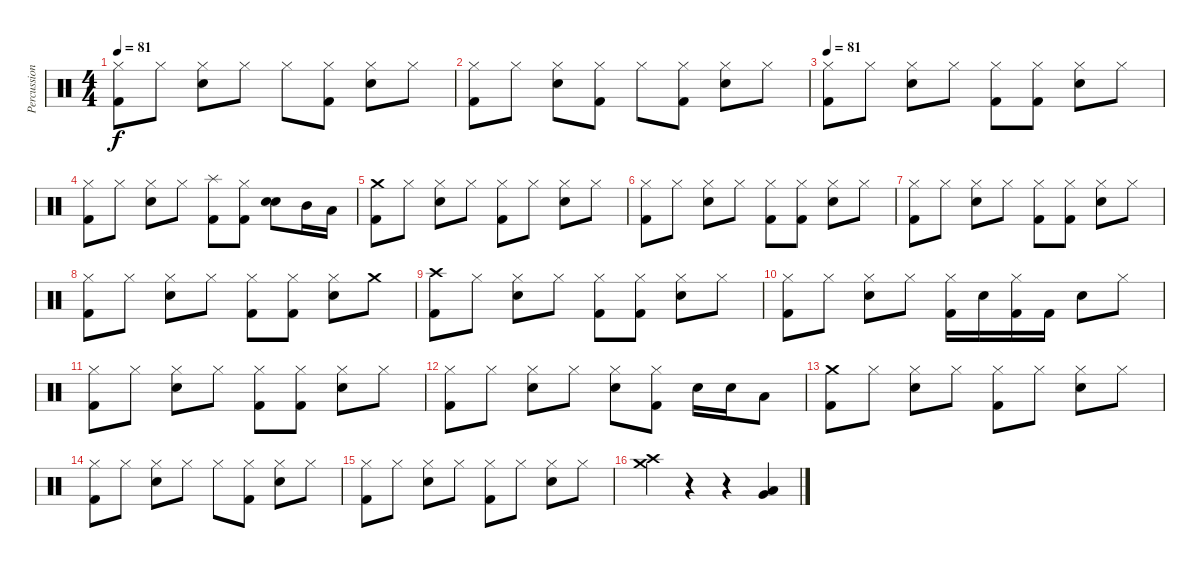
\track ("Percussion" "Percussion") {instrument percussion}
\staff {score}
\articulation defaults
\ts (4 4)
\tempo 81
\clef neutral
\ks c
("Hi-Hat (closed)" "Kick (hit) 2").8{dy f} "Hi-Hat (closed)".8 ("Hi-Hat (closed)" "Snare (hit) 2").8 "Hi-Hat (closed)".8 "Hi-Hat (closed)".8 ("Hi-Hat (closed)" "Kick (hit) 2").8 ("Hi-Hat (closed)" "Snare (hit) 2").8 "Hi-Hat (closed)".8 |
("Hi-Hat (closed)" "Kick (hit) 2").8 "Hi-Hat (closed)".8 ("Hi-Hat (closed)" "Snare (hit) 2").8 ("Hi-Hat (closed)" "Kick (hit) 2").8 "Hi-Hat (closed)".8 ("Hi-Hat (closed)" "Kick (hit) 2").8 ("Hi-Hat (closed)" "Snare (hit) 2").8 "Hi-Hat (closed)".8 |
\tempo 81
("Hi-Hat (closed)" "Kick (hit) 2").8 "Hi-Hat (closed)".8 ("Hi-Hat (closed)" "Snare (hit) 2").8 "Hi-Hat (closed)".8 ("Hi-Hat (closed)" "Kick (hit) 2").8 ("Hi-Hat (closed)" "Kick (hit) 2").8 ("Hi-Hat (closed)" "Snare (hit) 2").8 "Hi-Hat (closed)".8 |
("Hi-Hat (closed)" "Kick (hit) 2").8 "Hi-Hat (closed)".8 ("Hi-Hat (closed)" "Snare (hit) 2").8 "Hi-Hat (closed)".8 ("Splash (hit)" "Kick (hit) 2").8 ("Hi-Hat (closed)" "Kick (hit) 2").8 ("Snare (hit) 2" "Snare (hit) 2").8 "Mid Tom (hit)".16 "Low Tom (hit)".16 |
("Crash medium (hit)" "Kick (hit) 2").8 "Hi-Hat (closed)".8 ("Hi-Hat (closed)" "Snare (hit) 2").8 "Hi-Hat (closed)".8 ("Hi-Hat (closed)" "Kick (hit) 2").8 "Hi-Hat (closed)".8 ("Hi-Hat (closed)" "Snare (hit) 2").8 "Hi-Hat (closed)".8 |
("Hi-Hat (closed)" "Kick (hit) 2").8 "Hi-Hat (closed)".8 ("Hi-Hat (closed)" "Snare (hit) 2").8 "Hi-Hat (closed)".8 ("Hi-Hat (closed)" "Kick (hit) 2").8 ("Hi-Hat (closed)" "Kick (hit) 2").8 ("Hi-Hat (closed)" "Snare (hit) 2").8 "Hi-Hat (closed)".8 |
("Hi-Hat (closed)" "Kick (hit) 2").8 "Hi-Hat (closed)".8 ("Hi-Hat (closed)" "Snare (hit) 2").8 "Hi-Hat (closed)".8 ("Hi-Hat (closed)" "Kick (hit) 2").8 ("Hi-Hat (closed)" "Kick (hit) 2").8 ("Hi-Hat (closed)" "Snare (hit) 2").8 "Hi-Hat (closed)".8 |
("Hi-Hat (closed)" "Kick (hit) 2").8 "Hi-Hat (closed)".8 ("Hi-Hat (closed)" "Snare (hit) 2").8 "Hi-Hat (closed)".8 ("Hi-Hat (closed)" "Kick (hit) 2").8 ("Hi-Hat (closed)" "Kick (hit) 2").8 ("Hi-Hat (closed)" "Snare (hit) 2").8 "Crash medium (hit)".8 |
("Crash high (hit)" "Kick (hit) 2").8 "Hi-Hat (closed)".8 ("Hi-Hat (closed)" "Snare (hit) 2").8 "Hi-Hat (closed)".8 ("Hi-Hat (closed)" "Kick (hit) 2").8 ("Hi-Hat (closed)" "Kick (hit) 2").8 ("Hi-Hat (closed)" "Snare (hit) 2").8 "Hi-Hat (closed)".8 |
("Hi-Hat (closed)" "Kick (hit) 2").8 "Hi-Hat (closed)".8 ("Hi-Hat (closed)" "Snare (hit) 2").8 "Hi-Hat (closed)".8 ("Hi-Hat (closed)" "Kick (hit) 2").16 "Snare (hit) 2".16 ("Hi-Hat (closed)" "Kick (hit) 2").16 "Kick (hit) 2".16 "Snare (hit) 2".8 "Hi-Hat (closed)".8 |
("Hi-Hat (closed)" "Kick (hit) 2").8 "Hi-Hat (closed)".8 ("Hi-Hat (closed)" "Snare (hit) 2").8 "Hi-Hat (closed)".8 ("Hi-Hat (closed)" "Kick (hit) 2").8 ("Hi-Hat (closed)" "Kick (hit) 2").8 ("Hi-Hat (closed)" "Snare (hit) 2").8 "Hi-Hat (closed)".8 |
("Hi-Hat (closed)" "Kick (hit) 2").8 "Hi-Hat (closed)".8 ("Hi-Hat (closed)" "Snare (hit) 2").8 "Hi-Hat (closed)".8 ("Hi-Hat (closed)" "Snare (hit) 2").8 ("Hi-Hat (closed)" "Kick (hit) 2").8 "Snare (hit) 2".16 "Snare (hit) 2".16 "Low Tom (hit)".8 |
("Crash medium (hit)" "Kick (hit) 2").8 "Hi-Hat (closed)".8 ("Hi-Hat (closed)" "Snare (hit) 2").8 "Hi-Hat (closed)".8 ("Hi-Hat (closed)" "Kick (hit) 2").8 "Hi-Hat (closed)".8 ("Hi-Hat (closed)" "Snare (hit) 2").8 "Hi-Hat (closed)".8 |
("Hi-Hat (closed)" "Kick (hit) 2").8 "Hi-Hat (closed)".8 ("Hi-Hat (closed)" "Snare (hit) 2").8 "Hi-Hat (closed)".8 "Hi-Hat (closed)".8 ("Hi-Hat (closed)" "Kick (hit) 2").8 ("Hi-Hat (closed)" "Snare (hit) 2").8 "Hi-Hat (closed)".8 |
("Hi-Hat (closed)" "Kick (hit) 2").8 "Hi-Hat (closed)".8 ("Hi-Hat (closed)" "Snare (hit) 2").8 "Hi-Hat (closed)".8 ("Hi-Hat (closed)" "Kick (hit) 2").8 "Hi-Hat (closed)".8 ("Hi-Hat (closed)" "Snare (hit) 2").8 "Hi-Hat (closed)".8 |
("Crash medium (hit)" "Crash high (hit)").4 r.4 r.4 ("Very Low Tom (hit)" "Low Floor Tom (hit)").4
